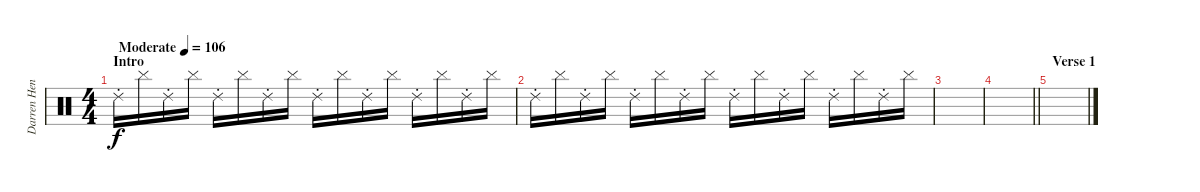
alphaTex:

\track ("Darren Henley [Percussion]" "Darren Hen") {instrument percussion}
\staff {score}
\articulation defaults
\ts (4 4)
\section ("" "Intro")
\tempo (106 "Moderate")
\clef neutral
\ks c "Ride (choke) 2".16{dy f balance 16} "Cymbal (hit)".16 "Ride (choke) 2".16 "Cymbal (hit)".16 "Ride (choke) 2".16{balance 0} "Cymbal (hit)".16 "Ride (choke) 2".16 "Cymbal (hit)".16 "Ride (choke) 2".16{balance 16} "Cymbal (hit)".16 "Ride (choke) 2".16 "Cymbal (hit)".16 "Ride (choke) 2".16{balance 0} "Cymbal (hit)".16 "Ride (choke) 2".16 "Cymbal (hit)".16
|
"Ride (choke) 2".16{volume 0 balance 16} "Cymbal (hit)".16 "Ride (choke) 2".16 "Cymbal (hit)".16 "Ride (choke) 2".16{balance 0} "Cymbal (hit)".16 "Ride (choke) 2".16 "Cymbal (hit)".16 "Ride (choke) 2".16{balance 16} "Cymbal (hit)".16 "Ride (choke) 2".16 "Cymbal (hit)".16 "Ride (choke) 2".16{balance 0} "Cymbal (hit)".16 "Ride (choke) 2".16 "Cymbal (hit)".16 |
|
\barLineRight lightlight
|
\section ("" "Verse 1")
